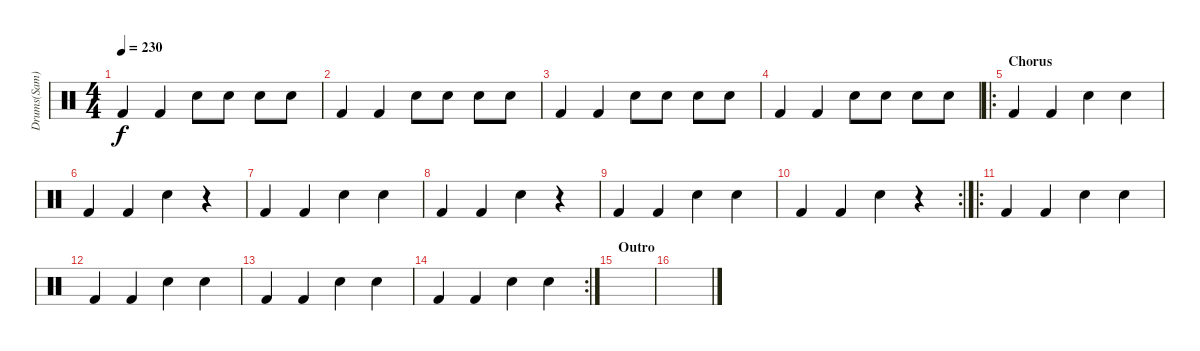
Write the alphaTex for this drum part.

\track ("Drums(Sam)" "Drums(Sam)") {instrument percussion}
\staff {score}
\articulation defaults
\ts (4 4)
\tempo 230
\clef neutral
\ks c "Kick (hit) 2".4{dy f} "Kick (hit) 2".4 "Snare (hit) 2".8 "Snare (hit) 2".8 "Snare (hit) 2".8 "Snare (hit) 2".8
|
"Kick (hit) 2".4 "Kick (hit) 2".4 "Snare (hit) 2".8 "Snare (hit) 2".8 "Snare (hit) 2".8 "Snare (hit) 2".8 |
"Kick (hit) 2".4 "Kick (hit) 2".4 "Snare (hit) 2".8 "Snare (hit) 2".8 "Snare (hit) 2".8 "Snare (hit) 2".8 |
"Kick (hit) 2".4 "Kick (hit) 2".4 "Snare (hit) 2".8 "Snare (hit) 2".8 "Snare (hit) 2".8 "Snare (hit) 2".8 |
\ro
\section ("" "Chorus")
"Kick (hit) 2".4 "Kick (hit) 2".4 "Snare (hit) 2".4 "Snare (hit) 2".4 |
"Kick (hit) 2".4 "Kick (hit) 2".4 "Snare (hit) 2".4 r.4 |
"Kick (hit) 2".4 "Kick (hit) 2".4 "Snare (hit) 2".4 "Snare (hit) 2".4 |
"Kick (hit) 2".4 "Kick (hit) 2".4 "Snare (hit) 2".4 r.4 |
"Kick (hit) 2".4 "Kick (hit) 2".4 "Snare (hit) 2".4 "Snare (hit) 2".4 |
\rc 2 "Kick (hit) 2".4 "Kick (hit) 2".4 "Snare (hit) 2".4
r.4 |
\ro "Kick (hit) 2".4 "Kick (hit) 2".4 "Snare (hit) 2".4 "Snare (hit) 2".4
|
"Kick (hit) 2".4 "Kick (hit) 2".4 "Snare (hit) 2".4 "Snare (hit) 2".4 |
"Kick (hit) 2".4 "Kick (hit) 2".4 "Snare (hit) 2".4 "Snare (hit) 2".4 |
\rc 2 "Kick (hit) 2".4 "Kick (hit) 2".4 "Snare (hit) 2".4 "Snare (hit) 2".4
|
\section ("" "Outro")
|
\section ("" "")
